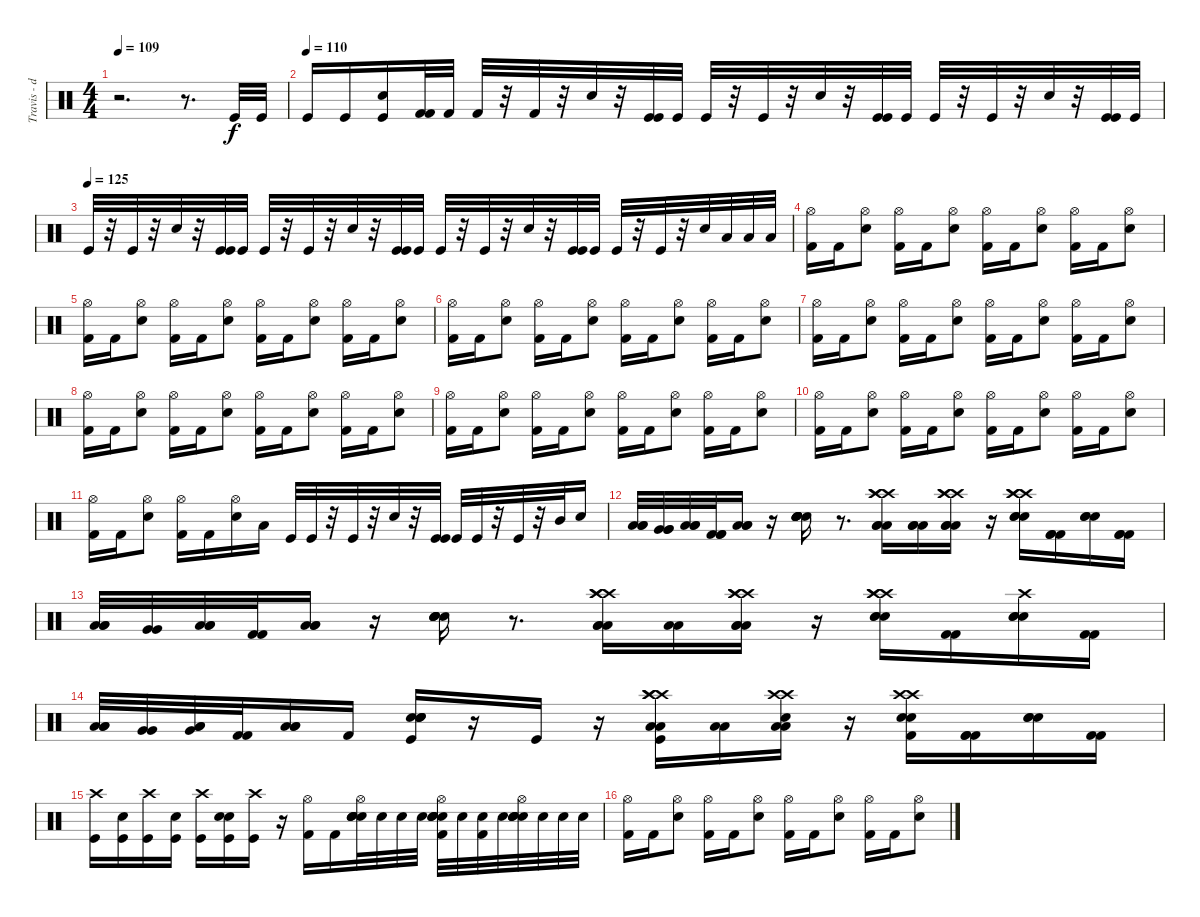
\track ("Travis - drums" "Travis - d") {instrument percussion}
\staff {score}
\articulation defaults
\ts (4 4)
\tempo 109
\clef neutral
\ks c
r.2{d dy f} r.8{d} "Kick (hit)".32 "Kick (hit)".32 |
\tempo (110)
"Kick (hit)".16 "Kick (hit)".16 ("Kick (hit)" "Electric Snare (hit)").16 ("Kick (hit) 2" "Kick (hit) 2").32 "Kick (hit) 2".32 "Kick (hit) 2".32 r.32 "Kick (hit) 2".32 r.32 "Electric Snare (hit)".32 r.32 ("Kick (hit)" "Kick (hit)").32 "Kick (hit)".32 "Kick (hit)".32 r.32 "Kick (hit)".32 r.32 "Electric Snare (hit)".32 r.32 ("Kick (hit)" "Kick (hit)").32 "Kick (hit)".32 "Kick (hit)".32 r.32 "Kick (hit)".32 r.32 "Snare (hit) 2".32 r.32 ("Kick (hit)" "Kick (hit)").32 "Kick (hit)".32 |
\tempo (125)
"Kick (hit)".32 r.32 "Kick (hit)".32 r.32 "Electric Snare (hit)".32 r.32 ("Kick (hit)" "Kick (hit)").32 "Kick (hit)".32 "Kick (hit)".32 r.32 "Kick (hit)".32 r.32 "Electric Snare (hit)".32 r.32 ("Kick (hit)" "Kick (hit)").32 "Kick (hit)".32 "Kick (hit)".32 r.32 "Kick (hit)".32 r.32 "Electric Snare (hit)".32 r.32 ("Kick (hit)" "Kick (hit)").32 "Kick (hit)".32 "Kick (hit)".32 r.32 "Kick (hit)".32 r.32 "Snare (hit) 2".32 "Low Floor Tom (hit)".32 "Low Floor Tom (hit)".32 "Low Floor Tom (hit)".32 |
("Kick (hit) 2" "Hi-Hat (open)").16 "Kick (hit) 2".16 ("Electric Snare (hit)" "Hi-Hat (open)").8 ("Kick (hit) 2" "Hi-Hat (open)").16 "Kick (hit) 2".16 ("Electric Snare (hit)" "Hi-Hat (open)").8 ("Kick (hit) 2" "Hi-Hat (open)").16 "Kick (hit) 2".16 ("Electric Snare (hit)" "Hi-Hat (open)").8 ("Kick (hit) 2" "Hi-Hat (open)").16 "Kick (hit) 2".16 ("Electric Snare (hit)" "Hi-Hat (open)").8 |
("Kick (hit) 2" "Hi-Hat (open)").16 "Kick (hit) 2".16 ("Electric Snare (hit)" "Hi-Hat (open)").8 ("Kick (hit) 2" "Hi-Hat (open)").16 "Kick (hit) 2".16 ("Electric Snare (hit)" "Hi-Hat (open)").8 ("Kick (hit) 2" "Hi-Hat (open)").16 "Kick (hit) 2".16 ("Electric Snare (hit)" "Hi-Hat (open)").8 ("Kick (hit) 2" "Hi-Hat (open)").16 "Kick (hit) 2".16 ("Electric Snare (hit)" "Hi-Hat (open)").8 |
("Kick (hit) 2" "Hi-Hat (open)").16 "Kick (hit) 2".16 ("Electric Snare (hit)" "Hi-Hat (open)").8 ("Kick (hit) 2" "Hi-Hat (open)").16 "Kick (hit) 2".16 ("Electric Snare (hit)" "Hi-Hat (open)").8 ("Kick (hit) 2" "Hi-Hat (open)").16 "Kick (hit) 2".16 ("Electric Snare (hit)" "Hi-Hat (open)").8 ("Kick (hit) 2" "Hi-Hat (open)").16 "Kick (hit) 2".16 ("Electric Snare (hit)" "Hi-Hat (open)").8 |
("Kick (hit) 2" "Hi-Hat (open)").16 "Kick (hit) 2".16 ("Electric Snare (hit)" "Hi-Hat (open)").8 ("Kick (hit) 2" "Hi-Hat (open)").16 "Kick (hit) 2".16 ("Electric Snare (hit)" "Hi-Hat (open)").8 ("Kick (hit) 2" "Hi-Hat (open)").16 "Kick (hit) 2".16 ("Electric Snare (hit)" "Hi-Hat (open)").8 ("Kick (hit) 2" "Hi-Hat (open)").16 "Kick (hit) 2".16 ("Electric Snare (hit)" "Hi-Hat (open)").8 |
("Kick (hit) 2" "Hi-Hat (open)").16 "Kick (hit) 2".16 ("Electric Snare (hit)" "Hi-Hat (open)").8 ("Kick (hit) 2" "Hi-Hat (open)").16 "Kick (hit) 2".16 ("Electric Snare (hit)" "Hi-Hat (open)").8 ("Kick (hit) 2" "Hi-Hat (open)").16 "Kick (hit) 2".16 ("Electric Snare (hit)" "Hi-Hat (open)").8 ("Kick (hit) 2" "Hi-Hat (open)").16 "Kick (hit) 2".16 ("Electric Snare (hit)" "Hi-Hat (open)").8 |
("Kick (hit) 2" "Hi-Hat (open)").16 "Kick (hit) 2".16 ("Electric Snare (hit)" "Hi-Hat (open)").8 ("Kick (hit) 2" "Hi-Hat (open)").16 "Kick (hit) 2".16 ("Electric Snare (hit)" "Hi-Hat (open)").8 ("Kick (hit) 2" "Hi-Hat (open)").16 "Kick (hit) 2".16 ("Electric Snare (hit)" "Hi-Hat (open)").8 ("Kick (hit) 2" "Hi-Hat (open)").16 "Kick (hit) 2".16 ("Electric Snare (hit)" "Hi-Hat (open)").8 |
("Kick (hit) 2" "Hi-Hat (open)").16 "Kick (hit) 2".16 ("Electric Snare (hit)" "Hi-Hat (open)").8 ("Kick (hit) 2" "Hi-Hat (open)").16 "Kick (hit) 2".16 ("Electric Snare (hit)" "Hi-Hat (open)").8 ("Kick (hit) 2" "Hi-Hat (open)").16 "Kick (hit) 2".16 ("Electric Snare (hit)" "Hi-Hat (open)").8 ("Kick (hit) 2" "Hi-Hat (open)").16 "Kick (hit) 2".16 ("Electric Snare (hit)" "Hi-Hat (open)").8 |
("Kick (hit) 2" "Hi-Hat (open)").16 "Kick (hit) 2".16 ("Electric Snare (hit)" "Hi-Hat (open)").8 ("Kick (hit) 2" "Hi-Hat (open)").16 "Kick (hit) 2".16 ("Electric Snare (hit)" "Hi-Hat (open)").16 "Low Tom (hit)".16 "Kick (hit)".32 "Kick (hit)".32 r.32 "Kick (hit)".32 r.32 "Electric Snare (hit)".32 r.32 ("Kick (hit)" "Kick (hit)").32 "Kick (hit)".32 "Kick (hit)".32 r.32 "Kick (hit)".32 r.32 "Mid Tom (hit)".32 "Snare (hit) 2".16 |
("Low Floor Tom (hit)" "Low Floor Tom (hit)" "Low Floor Tom (hit)").32 ("Very Low Tom (hit)" "Very Low Tom (hit)" "Very Low Tom (hit)").32 ("Low Floor Tom (hit)" "Low Floor Tom (hit)" "Low Floor Tom (hit)").32 ("Kick (hit) 2" "Kick (hit) 2" "Kick (hit) 2").32 ("Low Floor Tom (hit)" "Low Floor Tom (hit)" "Low Floor Tom (hit)").16 r.16 ("Electric Snare (hit)" "Electric Snare (hit)" "Electric Snare (hit)" "Electric Snare (hit)" "Electric Snare (hit)" "Electric Snare (hit)").16 r.8{d} ("Crash high (hit)" "Low Floor Tom (hit)" "Low Floor Tom (hit)" "Crash high (hit)" "Crash high (hit)" "Low Floor Tom (hit)").16 ("Low Floor Tom (hit)" "Low Floor Tom (hit)" "Low Floor Tom (hit)").16 ("Low Floor Tom (hit)" "Crash high (hit)" "Low Floor Tom (hit)" "Crash high (hit)" "Low Floor Tom (hit)" "Crash high (hit)").16 r.16 ("Crash high (hit)" "Electric Snare (hit)" "Crash high (hit)" "Electric Snare (hit)" "Crash high (hit)" "Electric Snare (hit)").16 ("Kick (hit) 2" "Kick (hit) 2" "Kick (hit) 2").16 ("Electric Snare (hit)" "Electric Snare (hit)" "Electric Snare (hit)").16 ("Kick (hit) 2" "Kick (hit) 2" "Kick (hit) 2").16 |
("Low Floor Tom (hit)" "Low Floor Tom (hit)" "Low Floor Tom (hit)").32 ("Very Low Tom (hit)" "Very Low Tom (hit)").32 ("Low Floor Tom (hit)" "Low Floor Tom (hit)" "Low Floor Tom (hit)").32 ("Kick (hit) 2" "Kick (hit) 2").32 ("Low Floor Tom (hit)" "Low Floor Tom (hit)" "Low Floor Tom (hit)").16 r.16 ("Electric Snare (hit)" "Electric Snare (hit)" "Electric Snare (hit)" "Electric Snare (hit)" "Electric Snare (hit)").16 r.8{d} ("Low Floor Tom (hit)" "Crash high (hit)" "Low Floor Tom (hit)" "Low Floor Tom (hit)" "Crash high (hit)" "Crash high (hit)").16 ("Low Floor Tom (hit)" "Low Floor Tom (hit)").16 ("Low Floor Tom (hit)" "Crash high (hit)" "Low Floor Tom (hit)" "Crash high (hit)" "Low Floor Tom (hit)" "Crash high (hit)").16 r.16 ("Electric Snare (hit)" "Crash high (hit)" "Crash high (hit)" "Electric Snare (hit)" "Crash high (hit)" "Electric Snare (hit)").16 ("Kick (hit) 2" "Kick (hit) 2").16 ("Electric Snare (hit)" "Crash high (hit)" "Electric Snare (hit)" "Electric Snare (hit)").16 ("Kick (hit) 2" "Kick (hit) 2").16 |
("Low Tom (hit)" "Low Floor Tom (hit)" "Low Floor Tom (hit)").32 ("Very Low Tom (hit)" "Very Low Tom (hit)").32 ("Very Low Tom (hit)" "Low Floor Tom (hit)" "Low Floor Tom (hit)").32 ("Kick (hit) 2" "Kick (hit) 2").32 ("Low Floor Tom (hit)" "Low Floor Tom (hit)" "Low Floor Tom (hit)").16 "Kick (hit) 2".16 ("Kick (hit)" "Electric Snare (hit)" "Electric Snare (hit)" "Electric Snare (hit)" "Electric Snare (hit)").16 r.16 "Kick (hit)".16 r.16 ("Kick (hit)" "Crash high (hit)" "Low Floor Tom (hit)" "Low Floor Tom (hit)" "Crash high (hit)" "Crash high (hit)").16 ("Low Floor Tom (hit)" "Low Floor Tom (hit)").16 ("Electric Snare (hit)" "Low Floor Tom (hit)" "Crash high (hit)" "Low Floor Tom (hit)" "Crash high (hit)").16 r.16 ("Kick (hit) 2" "Crash high (hit)" "Electric Snare (hit)" "Crash high (hit)" "Electric Snare (hit)").16 ("Kick (hit) 2" "Kick (hit) 2" "Kick (hit) 2").16 ("Electric Snare (hit)" "Electric Snare (hit)" "Electric Snare (hit)").16 ("Kick (hit) 2" "Kick (hit) 2").16 |
("Crash high (hit)" "Kick (hit)").16 ("Electric Snare (hit)" "Kick (hit)").16 ("Crash high (hit)" "Kick (hit)").16 ("Electric Snare (hit)" "Kick (hit)").16 ("Crash high (hit)" "Kick (hit)").16 ("Electric Snare (hit)" "Electric Snare (hit)" "Kick (hit)").16 ("Crash high (hit)" "Kick (hit)").16 r.16 ("Kick (hit) 2" "Hi-Hat (open)").16 "Kick (hit) 2".16 ("Electric Snare (hit)" "Electric Snare (hit)" "Electric Snare (hit)" "Electric Snare (hit)" "Hi-Hat (open)").32 "Electric Snare (hit)".32 "Electric Snare (hit)".32 "Electric Snare (hit)".32 ("Electric Snare (hit)" "Electric Snare (hit)" "Electric Snare (hit)" "Electric Snare (hit)" "Kick (hit) 2" "Hi-Hat (open)").32 "Electric Snare (hit)".32 ("Electric Snare (hit)" "Kick (hit) 2").32 "Electric Snare (hit)".32 ("Electric Snare (hit)" "Electric Snare (hit)" "Electric Snare (hit)" "Electric Snare (hit)" "Hi-Hat (open)").32 "Electric Snare (hit)".32 "Electric Snare (hit)".32 "Electric Snare (hit)".32 |
("Kick (hit) 2" "Hi-Hat (open)").16 "Kick (hit) 2".16 ("Electric Snare (hit)" "Hi-Hat (open)").8 ("Kick (hit) 2" "Hi-Hat (open)").16 "Kick (hit) 2".16 ("Electric Snare (hit)" "Hi-Hat (open)").8 ("Kick (hit) 2" "Hi-Hat (open)").16 "Kick (hit) 2".16 ("Electric Snare (hit)" "Hi-Hat (open)").8 ("Kick (hit) 2" "Hi-Hat (open)").16 "Kick (hit) 2".16 ("Electric Snare (hit)" "Hi-Hat (open)").8
